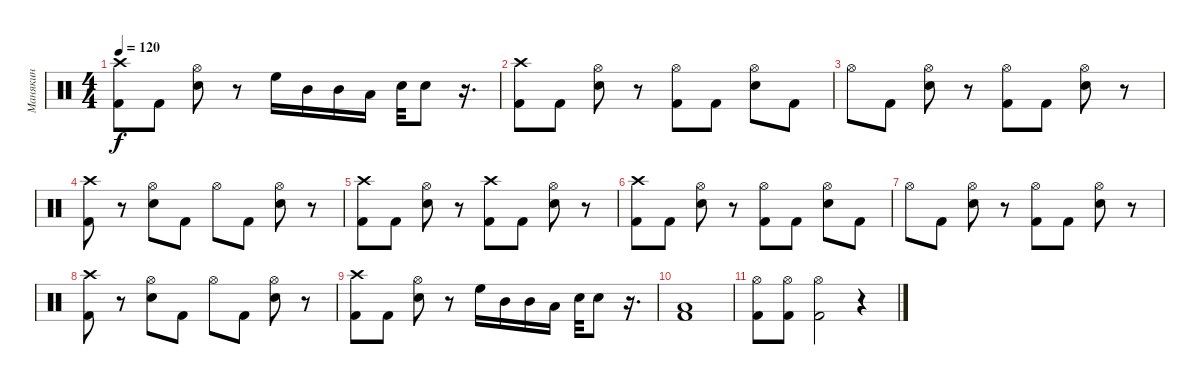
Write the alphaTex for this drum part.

\track ("Манякин" "Манякин") {instrument percussion}
\staff {score}
\articulation defaults
\ts (4 4)
\tempo 120
\clef neutral
\ks c
("Crash high (hit)" "Kick (hit) 2").8{dy f} "Kick (hit) 2".8 ("Hi-Hat (open)" "Electric Snare (hit)").8 r.8 "High Floor Tom (hit)".16 "Mid Tom (hit)".16 "Mid Tom (hit)".16 "Low Tom (hit)".16 "Electric Snare (hit)".32 "Electric Snare (hit)".8 r.16{d} |
("Crash high (hit)" "Kick (hit) 2").8 "Kick (hit) 2".8 ("Hi-Hat (open)" "Electric Snare (hit)").8 r.8 ("Hi-Hat (open)" "Kick (hit) 2").8 "Kick (hit) 2".8 ("Hi-Hat (open)" "Electric Snare (hit)").8 "Kick (hit) 2".8 |
"Hi-Hat (open)".8 "Kick (hit) 2".8 ("Hi-Hat (open)" "Electric Snare (hit)").8 r.8 ("Hi-Hat (open)" "Kick (hit) 2").8 "Kick (hit) 2".8 ("Hi-Hat (open)" "Electric Snare (hit)").8 r.8 |
("Crash high (hit)" "Kick (hit) 2").8 r.8 ("Hi-Hat (open)" "Electric Snare (hit)").8 "Kick (hit) 2".8 "Hi-Hat (open)".8 "Kick (hit) 2".8 ("Hi-Hat (open)" "Electric Snare (hit)").8 r.8 |
("Crash high (hit)" "Kick (hit) 2").8 "Kick (hit) 2".8 ("Hi-Hat (open)" "Electric Snare (hit)").8 r.8 ("Crash high (hit)" "Kick (hit) 2").8 "Kick (hit) 2".8 ("Hi-Hat (open)" "Electric Snare (hit)").8 r.8 |
("Crash high (hit)" "Kick (hit) 2").8 "Kick (hit) 2".8 ("Hi-Hat (open)" "Electric Snare (hit)").8 r.8 ("Hi-Hat (open)" "Kick (hit) 2").8 "Kick (hit) 2".8 ("Hi-Hat (open)" "Electric Snare (hit)").8 "Kick (hit) 2".8 |
"Hi-Hat (open)".8 "Kick (hit) 2".8 ("Hi-Hat (open)" "Electric Snare (hit)").8 r.8 ("Hi-Hat (open)" "Kick (hit) 2").8 "Kick (hit) 2".8 ("Hi-Hat (open)" "Electric Snare (hit)").8 r.8 |
("Crash high (hit)" "Kick (hit) 2").8 r.8 ("Hi-Hat (open)" "Electric Snare (hit)").8 "Kick (hit) 2".8 "Hi-Hat (open)".8 "Kick (hit) 2".8 ("Hi-Hat (open)" "Electric Snare (hit)").8 r.8 |
("Crash high (hit)" "Kick (hit) 2").8 "Kick (hit) 2".8 ("Hi-Hat (open)" "Electric Snare (hit)").8 r.8 "High Floor Tom (hit)".16 "Mid Tom (hit)".16 "Mid Tom (hit)".16 "Low Tom (hit)".16 "Electric Snare (hit)".32 "Electric Snare (hit)".8 r.16{d} |
("Low Floor Tom (hit)" "Kick (hit) 2").1 |
("Hi-Hat (open)" "Kick (hit) 2").8 ("Hi-Hat (open)" "Kick (hit) 2").8 ("Hi-Hat (open)" "Kick (hit) 2").2 r.4
